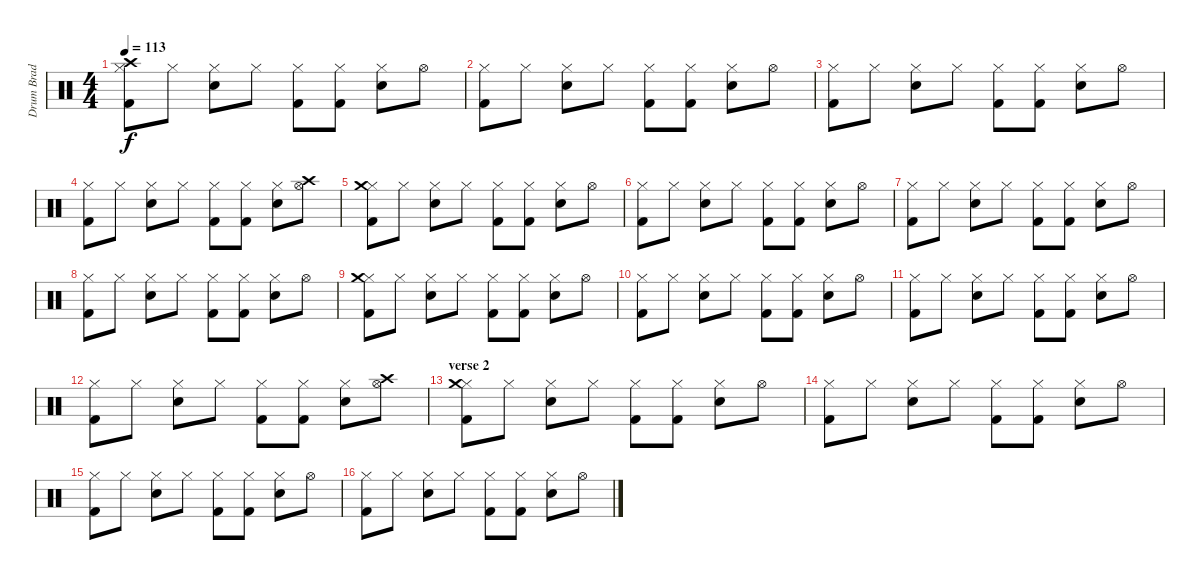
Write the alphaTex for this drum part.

\track ("Drum Brad Wilk" "Drum Brad ") {instrument percussion}
\staff {score}
\articulation defaults
\ts (4 4)
\tempo 113
\clef neutral
\ks c
("Hi-Hat (closed)" "Crash high (hit)" "Kick (hit) 2").8{dy f} "Hi-Hat (closed)".8 ("Hi-Hat (closed)" "Snare (hit) 2").8 "Hi-Hat (closed)".8 ("Hi-Hat (closed)" "Kick (hit) 2").8 ("Hi-Hat (closed)" "Kick (hit) 2").8 ("Hi-Hat (closed)" "Snare (hit) 2").8 "Hi-Hat (open)".8 |
("Hi-Hat (closed)" "Kick (hit) 2").8 "Hi-Hat (closed)".8 ("Hi-Hat (closed)" "Snare (hit) 2").8 "Hi-Hat (closed)".8 ("Hi-Hat (closed)" "Kick (hit) 2").8 ("Hi-Hat (closed)" "Kick (hit) 2").8 ("Hi-Hat (closed)" "Snare (hit) 2").8 "Hi-Hat (open)".8 |
("Hi-Hat (closed)" "Kick (hit) 2").8 "Hi-Hat (closed)".8 ("Hi-Hat (closed)" "Snare (hit) 2").8 "Hi-Hat (closed)".8 ("Hi-Hat (closed)" "Kick (hit) 2").8 ("Hi-Hat (closed)" "Kick (hit) 2").8 ("Hi-Hat (closed)" "Snare (hit) 2").8 "Hi-Hat (open)".8 |
("Hi-Hat (closed)" "Kick (hit) 2").8 "Hi-Hat (closed)".8 ("Hi-Hat (closed)" "Snare (hit) 2").8 "Hi-Hat (closed)".8 ("Hi-Hat (closed)" "Kick (hit) 2").8 ("Hi-Hat (closed)" "Kick (hit) 2").8 ("Hi-Hat (closed)" "Snare (hit) 2").8 ("Hi-Hat (open)" "Crash high (hit)").8 |
("Hi-Hat (closed)" "Crash medium (hit)" "Kick (hit) 2").8 "Hi-Hat (closed)".8 ("Hi-Hat (closed)" "Snare (hit) 2").8 "Hi-Hat (closed)".8 ("Hi-Hat (closed)" "Kick (hit) 2").8 ("Hi-Hat (closed)" "Kick (hit) 2").8 ("Hi-Hat (closed)" "Snare (hit) 2").8 "Hi-Hat (open)".8 |
("Hi-Hat (closed)" "Kick (hit) 2").8 "Hi-Hat (closed)".8 ("Hi-Hat (closed)" "Snare (hit) 2").8 "Hi-Hat (closed)".8 ("Hi-Hat (closed)" "Kick (hit) 2").8 ("Hi-Hat (closed)" "Kick (hit) 2").8 ("Hi-Hat (closed)" "Snare (hit) 2").8 "Hi-Hat (open)".8 |
("Hi-Hat (closed)" "Kick (hit) 2").8 "Hi-Hat (closed)".8 ("Hi-Hat (closed)" "Snare (hit) 2").8 "Hi-Hat (closed)".8 ("Hi-Hat (closed)" "Kick (hit) 2").8 ("Hi-Hat (closed)" "Kick (hit) 2").8 ("Hi-Hat (closed)" "Snare (hit) 2").8 "Hi-Hat (open)".8 |
("Hi-Hat (closed)" "Kick (hit) 2").8 "Hi-Hat (closed)".8 ("Hi-Hat (closed)" "Snare (hit) 2").8 "Hi-Hat (closed)".8 ("Hi-Hat (closed)" "Kick (hit) 2").8 ("Hi-Hat (closed)" "Kick (hit) 2").8 ("Hi-Hat (closed)" "Snare (hit) 2").8 "Hi-Hat (open)".8 |
("Hi-Hat (closed)" "Crash medium (hit)" "Kick (hit) 2").8 "Hi-Hat (closed)".8 ("Hi-Hat (closed)" "Snare (hit) 2").8 "Hi-Hat (closed)".8 ("Hi-Hat (closed)" "Kick (hit) 2").8 ("Hi-Hat (closed)" "Kick (hit) 2").8 ("Hi-Hat (closed)" "Snare (hit) 2").8 "Hi-Hat (open)".8 |
("Hi-Hat (closed)" "Kick (hit) 2").8 "Hi-Hat (closed)".8 ("Hi-Hat (closed)" "Snare (hit) 2").8 "Hi-Hat (closed)".8 ("Hi-Hat (closed)" "Kick (hit) 2").8 ("Hi-Hat (closed)" "Kick (hit) 2").8 ("Hi-Hat (closed)" "Snare (hit) 2").8 "Hi-Hat (open)".8 |
("Hi-Hat (closed)" "Kick (hit) 2").8 "Hi-Hat (closed)".8 ("Hi-Hat (closed)" "Snare (hit) 2").8 "Hi-Hat (closed)".8 ("Hi-Hat (closed)" "Kick (hit) 2").8 ("Hi-Hat (closed)" "Kick (hit) 2").8 ("Hi-Hat (closed)" "Snare (hit) 2").8 "Hi-Hat (open)".8 |
("Hi-Hat (closed)" "Kick (hit) 2").8 "Hi-Hat (closed)".8 ("Hi-Hat (closed)" "Snare (hit) 2").8 "Hi-Hat (closed)".8 ("Hi-Hat (closed)" "Kick (hit) 2").8 ("Hi-Hat (closed)" "Kick (hit) 2").8 ("Hi-Hat (closed)" "Snare (hit) 2").8 ("Hi-Hat (open)" "Crash high (hit)").8 |
\section ("" "verse 2")
("Hi-Hat (closed)" "Crash medium (hit)" "Kick (hit) 2").8 "Hi-Hat (closed)".8 ("Hi-Hat (closed)" "Snare (hit) 2").8 "Hi-Hat (closed)".8 ("Hi-Hat (closed)" "Kick (hit) 2").8 ("Hi-Hat (closed)" "Kick (hit) 2").8 ("Hi-Hat (closed)" "Snare (hit) 2").8 "Hi-Hat (open)".8 |
("Hi-Hat (closed)" "Kick (hit) 2").8 "Hi-Hat (closed)".8 ("Hi-Hat (closed)" "Snare (hit) 2").8 "Hi-Hat (closed)".8 ("Hi-Hat (closed)" "Kick (hit) 2").8 ("Hi-Hat (closed)" "Kick (hit) 2").8 ("Hi-Hat (closed)" "Snare (hit) 2").8 "Hi-Hat (open)".8 |
("Hi-Hat (closed)" "Kick (hit) 2").8 "Hi-Hat (closed)".8 ("Hi-Hat (closed)" "Snare (hit) 2").8 "Hi-Hat (closed)".8 ("Hi-Hat (closed)" "Kick (hit) 2").8 ("Hi-Hat (closed)" "Kick (hit) 2").8 ("Hi-Hat (closed)" "Snare (hit) 2").8 "Hi-Hat (open)".8 |
("Hi-Hat (closed)" "Kick (hit) 2").8 "Hi-Hat (closed)".8 ("Hi-Hat (closed)" "Snare (hit) 2").8 "Hi-Hat (closed)".8 ("Hi-Hat (closed)" "Kick (hit) 2").8 ("Hi-Hat (closed)" "Kick (hit) 2").8 ("Hi-Hat (closed)" "Snare (hit) 2").8 "Hi-Hat (open)".8
